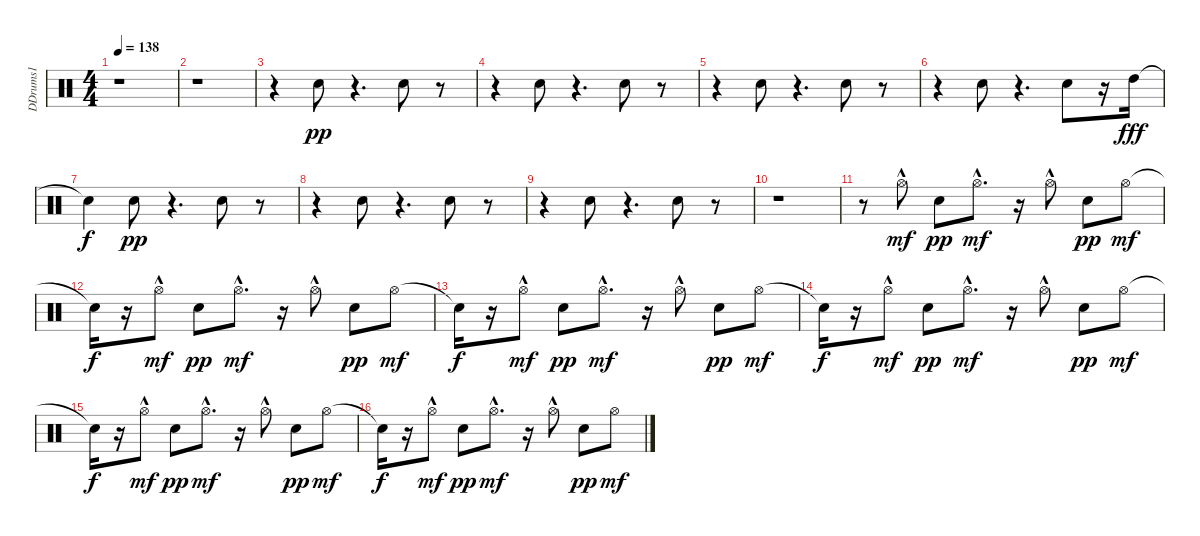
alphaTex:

\track ("DDrums1" "DDrums1") {instrument percussion}
\staff {score}
\articulation defaults
\ts (4 4)
\tempo 138
\clef neutral
\ks c
r.1{dy f} |
r.1 |
r.4 "Electric Snare (hit)".8{dy pp} r.4{d} "Electric Snare (hit)".8 r.8 |
r.4 "Electric Snare (hit)".8 r.4{d} "Electric Snare (hit)".8 r.8 |
r.4 "Electric Snare (hit)".8 r.4{d} "Electric Snare (hit)".8 r.8 |
r.4 "Electric Snare (hit)".8 r.4{d} "Electric Snare (hit)".8 r.16 "High Tom (hit)".16{dy fff} |
"Snare (hit)"{t}.4{dy f} "Electric Snare (hit)".8{dy pp} r.4{d} "Electric Snare (hit)".8 r.8 |
r.4 "Electric Snare (hit)".8 r.4{d} "Electric Snare (hit)".8 r.8 |
r.4 "Electric Snare (hit)".8 r.4{d} "Electric Snare (hit)".8 r.8 |
r.1 |
r.8 "Hi-Hat (open)"{hac}.8{dy mf} "Electric Snare (hit)".8{dy pp} "Hi-Hat (open)"{hac}.8{d dy mf} r.16 "Hi-Hat (open)"{hac}.8 "Electric Snare (hit)".8{dy pp} "Hi-Hat (open)".8{dy mf} |
"Snare (hit)"{t}.16{dy f} r.16 "Hi-Hat (open)"{hac}.8{dy mf} "Electric Snare (hit)".8{dy pp} "Hi-Hat (open)"{hac}.8{d dy mf} r.16 "Hi-Hat (open)"{hac}.8 "Electric Snare (hit)".8{dy pp} "Hi-Hat (open)".8{dy mf} |
"Snare (hit)"{t}.16{dy f} r.16 "Hi-Hat (open)"{hac}.8{dy mf} "Electric Snare (hit)".8{dy pp} "Hi-Hat (open)"{hac}.8{d dy mf} r.16 "Hi-Hat (open)"{hac}.8 "Electric Snare (hit)".8{dy pp} "Hi-Hat (open)".8{dy mf} |
"Snare (hit)"{t}.16{dy f} r.16 "Hi-Hat (open)"{hac}.8{dy mf} "Electric Snare (hit)".8{dy pp} "Hi-Hat (open)"{hac}.8{d dy mf} r.16 "Hi-Hat (open)"{hac}.8 "Electric Snare (hit)".8{dy pp} "Hi-Hat (open)".8{dy mf} |
"Snare (hit)"{t}.16{dy f} r.16 "Hi-Hat (open)"{hac}.8{dy mf} "Electric Snare (hit)".8{dy pp} "Hi-Hat (open)"{hac}.8{d dy mf} r.16 "Hi-Hat (open)"{hac}.8 "Electric Snare (hit)".8{dy pp} "Hi-Hat (open)".8{dy mf} |
"Snare (hit)"{t}.16{dy f} r.16 "Hi-Hat (open)"{hac}.8{dy mf} "Electric Snare (hit)".8{dy pp} "Hi-Hat (open)"{hac}.8{d dy mf} r.16 "Hi-Hat (open)"{hac}.8 "Electric Snare (hit)".8{dy pp} "Hi-Hat (open)".8{dy mf}
